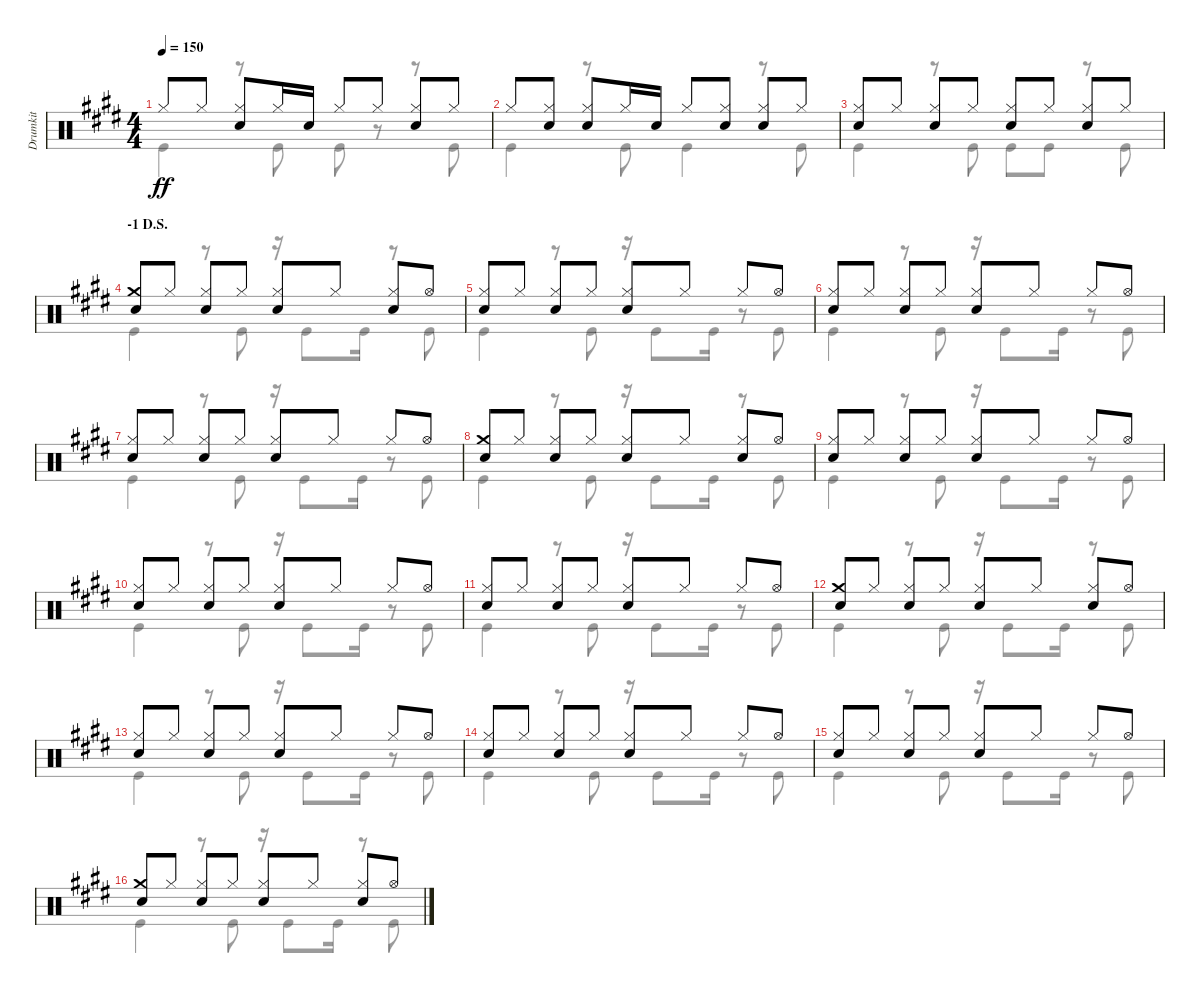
\track ("Drumkit" "Drumkit") {instrument percussion}
\staff {score}
\articulation defaults
\voice
\ts (4 4)
\tempo 150
\clef neutral
\ks e "Hi-Hat (closed)".8{dy ff} "Hi-Hat (closed)".8
("Hi-Hat (closed)" "Snare (hit) 2").8 "Hi-Hat (closed)".16 "Snare (hit) 2".16 "Hi-Hat (closed)".8 "Hi-Hat (closed)".8 ("Hi-Hat (closed)" "Snare (hit) 2").8 "Hi-Hat (closed)".8 |
"Hi-Hat (closed)".8 ("Hi-Hat (closed)" "Snare (hit) 2").8 ("Snare (hit) 2" "Hi-Hat (closed)").8 "Hi-Hat (closed)".16 "Snare (hit) 2".16 "Hi-Hat (closed)".8 ("Hi-Hat (closed)" "Snare (hit) 2").8 ("Snare (hit) 2" "Hi-Hat (closed)").8 "Hi-Hat (closed)".8 |
("Hi-Hat (closed)" "Snare (hit) 2").8 "Hi-Hat (closed)".8 ("Hi-Hat (closed)" "Snare (hit) 2").8 "Hi-Hat (closed)".8 ("Hi-Hat (closed)" "Snare (hit) 2").8 "Hi-Hat (closed)".8 ("Hi-Hat (closed)" "Snare (hit) 2").8 "Hi-Hat (closed)".8 |
\section ("" "-1 D.S.")
("Crash medium (hit)" "Snare (hit) 2").8 "Hi-Hat (closed)".8 ("Hi-Hat (closed)" "Snare (hit) 2").8 "Hi-Hat (closed)".8 ("Hi-Hat (closed)" "Snare (hit) 2").8 "Hi-Hat (closed)".8 ("Hi-Hat (closed)" "Snare (hit) 2").8 "Hi-Hat (open)".8 |
("Snare (hit) 2" "Hi-Hat (closed)").8 "Hi-Hat (closed)".8 ("Hi-Hat (closed)" "Snare (hit) 2").8 "Hi-Hat (closed)".8 ("Hi-Hat (closed)" "Snare (hit) 2").8 "Hi-Hat (closed)".8 "Hi-Hat (closed)".8 "Hi-Hat (open)".8 |
("Snare (hit) 2" "Hi-Hat (closed)").8 "Hi-Hat (closed)".8 ("Hi-Hat (closed)" "Snare (hit) 2").8 "Hi-Hat (closed)".8 ("Hi-Hat (closed)" "Snare (hit) 2").8 "Hi-Hat (closed)".8 "Hi-Hat (closed)".8 "Hi-Hat (open)".8 |
("Snare (hit) 2" "Hi-Hat (closed)").8 "Hi-Hat (closed)".8 ("Hi-Hat (closed)" "Snare (hit) 2").8 "Hi-Hat (closed)".8 ("Hi-Hat (closed)" "Snare (hit) 2").8 "Hi-Hat (closed)".8 "Hi-Hat (closed)".8 "Hi-Hat (open)".8 |
("Crash medium (hit)" "Snare (hit) 2").8 "Hi-Hat (closed)".8 ("Hi-Hat (closed)" "Snare (hit) 2").8 "Hi-Hat (closed)".8 ("Hi-Hat (closed)" "Snare (hit) 2").8 "Hi-Hat (closed)".8 ("Hi-Hat (closed)" "Snare (hit) 2").8 "Hi-Hat (open)".8 |
("Snare (hit) 2" "Hi-Hat (closed)").8 "Hi-Hat (closed)".8 ("Hi-Hat (closed)" "Snare (hit) 2").8 "Hi-Hat (closed)".8 ("Hi-Hat (closed)" "Snare (hit) 2").8 "Hi-Hat (closed)".8 "Hi-Hat (closed)".8 "Hi-Hat (open)".8 |
("Snare (hit) 2" "Hi-Hat (closed)").8 "Hi-Hat (closed)".8 ("Hi-Hat (closed)" "Snare (hit) 2").8 "Hi-Hat (closed)".8 ("Hi-Hat (closed)" "Snare (hit) 2").8 "Hi-Hat (closed)".8 "Hi-Hat (closed)".8 "Hi-Hat (open)".8 |
("Snare (hit) 2" "Hi-Hat (closed)").8 "Hi-Hat (closed)".8 ("Hi-Hat (closed)" "Snare (hit) 2").8 "Hi-Hat (closed)".8 ("Hi-Hat (closed)" "Snare (hit) 2").8 "Hi-Hat (closed)".8 "Hi-Hat (closed)".8 "Hi-Hat (open)".8 |
("Crash medium (hit)" "Snare (hit) 2").8 "Hi-Hat (closed)".8 ("Hi-Hat (closed)" "Snare (hit) 2").8 "Hi-Hat (closed)".8 ("Hi-Hat (closed)" "Snare (hit) 2").8 "Hi-Hat (closed)".8 ("Hi-Hat (closed)" "Snare (hit) 2").8 "Hi-Hat (open)".8 |
("Snare (hit) 2" "Hi-Hat (closed)").8 "Hi-Hat (closed)".8 ("Hi-Hat (closed)" "Snare (hit) 2").8 "Hi-Hat (closed)".8 ("Hi-Hat (closed)" "Snare (hit) 2").8 "Hi-Hat (closed)".8 "Hi-Hat (closed)".8 "Hi-Hat (open)".8 |
("Snare (hit) 2" "Hi-Hat (closed)").8 "Hi-Hat (closed)".8 ("Hi-Hat (closed)" "Snare (hit) 2").8 "Hi-Hat (closed)".8 ("Hi-Hat (closed)" "Snare (hit) 2").8 "Hi-Hat (closed)".8 "Hi-Hat (closed)".8 "Hi-Hat (open)".8 |
("Snare (hit) 2" "Hi-Hat (closed)").8 "Hi-Hat (closed)".8 ("Hi-Hat (closed)" "Snare (hit) 2").8 "Hi-Hat (closed)".8 ("Hi-Hat (closed)" "Snare (hit) 2").8 "Hi-Hat (closed)".8 "Hi-Hat (closed)".8 "Hi-Hat (open)".8 |
("Crash medium (hit)" "Snare (hit) 2").8 "Hi-Hat (closed)".8 ("Hi-Hat (closed)" "Snare (hit) 2").8 "Hi-Hat (closed)".8 ("Hi-Hat (closed)" "Snare (hit) 2").8 "Hi-Hat (closed)".8 ("Hi-Hat (closed)" "Snare (hit) 2").8 "Hi-Hat (open)".8
\voice
\clef neutral
\ottava regular
\simile none
\ks e "Kick (hit)".4{dy ff}
r.8 "Kick (hit)".8 "Kick (hit)".8 r.8 r.8 "Kick (hit)".8 |
"Kick (hit)".4 r.8 "Kick (hit)".8 "Kick (hit)".4 r.8 "Kick (hit)".8 |
"Kick (hit)".4 r.8 "Kick (hit)".8 "Kick (hit)".8 "Kick (hit)".8 r.8 "Kick (hit)".8 |
"Kick (hit)".4 r.8 "Kick (hit)".8 r.16 "Kick (hit)".8 "Kick (hit)".16 r.8 "Kick (hit)".8 |
"Kick (hit)".4 r.8 "Kick (hit)".8 r.16 "Kick (hit)".8 "Kick (hit)".16 r.8 "Kick (hit)".8 |
"Kick (hit)".4 r.8 "Kick (hit)".8 r.16 "Kick (hit)".8 "Kick (hit)".16 r.8 "Kick (hit)".8 |
"Kick (hit)".4 r.8 "Kick (hit)".8 r.16 "Kick (hit)".8 "Kick (hit)".16 r.8 "Kick (hit)".8 |
"Kick (hit)".4 r.8 "Kick (hit)".8 r.16 "Kick (hit)".8 "Kick (hit)".16 r.8 "Kick (hit)".8 |
"Kick (hit)".4 r.8 "Kick (hit)".8 r.16 "Kick (hit)".8 "Kick (hit)".16 r.8 "Kick (hit)".8 |
"Kick (hit)".4 r.8 "Kick (hit)".8 r.16 "Kick (hit)".8 "Kick (hit)".16 r.8 "Kick (hit)".8 |
"Kick (hit)".4 r.8 "Kick (hit)".8 r.16 "Kick (hit)".8 "Kick (hit)".16 r.8 "Kick (hit)".8 |
"Kick (hit)".4 r.8 "Kick (hit)".8 r.16 "Kick (hit)".8 "Kick (hit)".16 r.8 "Kick (hit)".8 |
"Kick (hit)".4 r.8 "Kick (hit)".8 r.16 "Kick (hit)".8 "Kick (hit)".16 r.8 "Kick (hit)".8 |
"Kick (hit)".4 r.8 "Kick (hit)".8 r.16 "Kick (hit)".8 "Kick (hit)".16 r.8 "Kick (hit)".8 |
"Kick (hit)".4 r.8 "Kick (hit)".8 r.16 "Kick (hit)".8 "Kick (hit)".16 r.8 "Kick (hit)".8 |
"Kick (hit)".4 r.8 "Kick (hit)".8 r.16 "Kick (hit)".8 "Kick (hit)".16 r.8 "Kick (hit)".8
